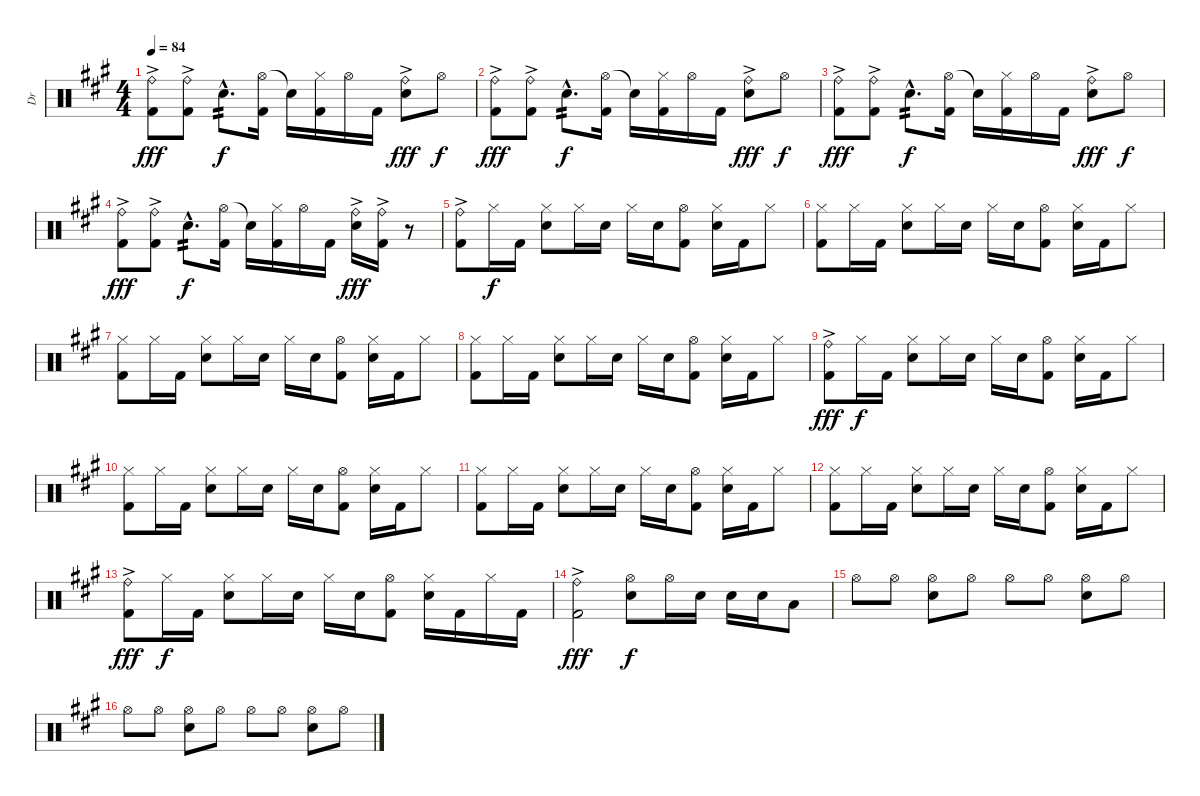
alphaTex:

\track ("Dr" "Dr") {instrument percussion}
\staff {score}
\articulation defaults
\ts (4 4)
\tempo 84
\clef neutral
\ks a
("Ride (bell)"{ac} "Kick (hit) 2"{ac}).8{dy fff} ("Ride (bell)"{ac} "Kick (hit) 2"{ac}).8 "Electric Snare (hit)"{hac}.8{d tp 2 dy f} ("Hi-Hat (open)" "Kick (hit) 2").16 "Snare (hit)"{t}.16 ("Hi-Hat (closed)" "Kick (hit) 2").16 "Hi-Hat (open)".16 "Kick (hit) 2".16 ("Ride (bell)"{ac} "Electric Snare (hit)"{ac}).8{dy fff} "Hi-Hat (open)".8{dy f} |
("Ride (bell)"{ac} "Kick (hit) 2"{ac}).8{dy fff} ("Ride (bell)"{ac} "Kick (hit) 2"{ac}).8 "Electric Snare (hit)"{hac}.8{d tp 2 dy f} ("Hi-Hat (open)" "Kick (hit) 2").16 "Snare (hit)"{t}.16 ("Hi-Hat (closed)" "Kick (hit) 2").16 "Hi-Hat (open)".16 "Kick (hit) 2".16 ("Ride (bell)"{ac} "Electric Snare (hit)"{ac}).8{dy fff} "Hi-Hat (open)".8{dy f} |
("Ride (bell)"{ac} "Kick (hit) 2"{ac}).8{dy fff} ("Ride (bell)"{ac} "Kick (hit) 2"{ac}).8 "Electric Snare (hit)"{hac}.8{d tp 2 dy f} ("Hi-Hat (open)" "Kick (hit) 2").16 "Snare (hit)"{t}.16 ("Hi-Hat (closed)" "Kick (hit) 2").16 "Hi-Hat (open)".16 "Kick (hit) 2".16 ("Ride (bell)"{ac} "Electric Snare (hit)"{ac}).8{dy fff} "Hi-Hat (open)".8{dy f} |
("Ride (bell)"{ac} "Kick (hit) 2"{ac}).8{dy fff} ("Ride (bell)"{ac} "Kick (hit) 2"{ac}).8 "Electric Snare (hit)"{hac}.8{d tp 2 dy f} ("Hi-Hat (open)" "Kick (hit) 2").16 "Snare (hit)"{t}.16 ("Hi-Hat (closed)" "Kick (hit) 2").16 "Hi-Hat (open)".16 "Kick (hit) 2".16 ("Ride (bell)"{ac} "Electric Snare (hit)"{ac}).16{dy fff} ("Ride (bell)"{ac} "Kick (hit) 2"{ac}).16 r.8 |
("Ride (bell)"{ac} "Kick (hit) 2"{ac}).8 "Hi-Hat (closed)".16{dy f} "Kick (hit) 2".16 ("Hi-Hat (closed)" "Electric Snare (hit)").8 "Hi-Hat (closed)".16 "Electric Snare (hit)".16 "Hi-Hat (closed)".16 "Electric Snare (hit)".16 ("Hi-Hat (open)" "Kick (hit) 2").8 ("Hi-Hat (closed)" "Electric Snare (hit)").16 "Kick (hit) 2".16 "Hi-Hat (closed)".8 |
("Hi-Hat (closed)" "Kick (hit) 2").8 "Hi-Hat (closed)".16 "Kick (hit) 2".16 ("Hi-Hat (closed)" "Electric Snare (hit)").8 "Hi-Hat (closed)".16 "Electric Snare (hit)".16 "Hi-Hat (closed)".16 "Electric Snare (hit)".16 ("Hi-Hat (open)" "Kick (hit) 2").8 ("Hi-Hat (closed)" "Electric Snare (hit)").16 "Kick (hit) 2".16 "Hi-Hat (closed)".8 |
("Hi-Hat (closed)" "Kick (hit) 2").8 "Hi-Hat (closed)".16 "Kick (hit) 2".16 ("Hi-Hat (closed)" "Electric Snare (hit)").8 "Hi-Hat (closed)".16 "Electric Snare (hit)".16 "Hi-Hat (closed)".16 "Electric Snare (hit)".16 ("Hi-Hat (open)" "Kick (hit) 2").8 ("Hi-Hat (closed)" "Electric Snare (hit)").16 "Kick (hit) 2".16 "Hi-Hat (closed)".8 |
("Hi-Hat (closed)" "Kick (hit) 2").8 "Hi-Hat (closed)".16 "Kick (hit) 2".16 ("Hi-Hat (closed)" "Electric Snare (hit)").8 "Hi-Hat (closed)".16 "Electric Snare (hit)".16 "Hi-Hat (closed)".16 "Electric Snare (hit)".16 ("Hi-Hat (open)" "Kick (hit) 2").8 ("Hi-Hat (closed)" "Electric Snare (hit)").16 "Kick (hit) 2".16 "Hi-Hat (closed)".8 |
("Ride (bell)"{ac} "Kick (hit) 2"{ac}).8{dy fff} "Hi-Hat (closed)".16{dy f} "Kick (hit) 2".16 ("Hi-Hat (closed)" "Electric Snare (hit)").8 "Hi-Hat (closed)".16 "Electric Snare (hit)".16 "Hi-Hat (closed)".16 "Electric Snare (hit)".16 ("Hi-Hat (open)" "Kick (hit) 2").8 ("Hi-Hat (closed)" "Electric Snare (hit)").16 "Kick (hit) 2".16 "Hi-Hat (closed)".8 |
("Hi-Hat (closed)" "Kick (hit) 2").8 "Hi-Hat (closed)".16 "Kick (hit) 2".16 ("Hi-Hat (closed)" "Electric Snare (hit)").8 "Hi-Hat (closed)".16 "Electric Snare (hit)".16 "Hi-Hat (closed)".16 "Electric Snare (hit)".16 ("Hi-Hat (open)" "Kick (hit) 2").8 ("Hi-Hat (closed)" "Electric Snare (hit)").16 "Kick (hit) 2".16 "Hi-Hat (closed)".8 |
("Hi-Hat (closed)" "Kick (hit) 2").8 "Hi-Hat (closed)".16 "Kick (hit) 2".16 ("Hi-Hat (closed)" "Electric Snare (hit)").8 "Hi-Hat (closed)".16 "Electric Snare (hit)".16 "Hi-Hat (closed)".16 "Electric Snare (hit)".16 ("Hi-Hat (open)" "Kick (hit) 2").8 ("Hi-Hat (closed)" "Electric Snare (hit)").16 "Kick (hit) 2".16 "Hi-Hat (closed)".8 |
("Hi-Hat (closed)" "Kick (hit) 2").8 "Hi-Hat (closed)".16 "Kick (hit) 2".16 ("Hi-Hat (closed)" "Electric Snare (hit)").8 "Hi-Hat (closed)".16 "Electric Snare (hit)".16 "Hi-Hat (closed)".16 "Electric Snare (hit)".16 ("Hi-Hat (open)" "Kick (hit) 2").8 ("Hi-Hat (closed)" "Electric Snare (hit)").16 "Kick (hit) 2".16 "Hi-Hat (closed)".8 |
("Ride (bell)"{ac} "Kick (hit) 2"{ac}).8{dy fff} "Hi-Hat (closed)".16{dy f} "Kick (hit) 2".16 ("Hi-Hat (closed)" "Electric Snare (hit)").8 "Hi-Hat (closed)".16 "Electric Snare (hit)".16 "Hi-Hat (closed)".16 "Electric Snare (hit)".16 ("Hi-Hat (open)" "Kick (hit) 2").8 ("Hi-Hat (closed)" "Electric Snare (hit)").16 "Kick (hit) 2".16 "Hi-Hat (closed)".16 "Kick (hit) 2".16 |
("Ride (bell)"{ac} "Kick (hit) 2"{ac}).2{dy fff} ("Hi-Hat (open)" "Electric Snare (hit)").8{dy f} "Hi-Hat (open)".16 "Electric Snare (hit)".16 "Electric Snare (hit)".16 "Electric Snare (hit)".16 "Low Tom (hit)".8 |
"Hi-Hat (open)".8 "Hi-Hat (open)".8 ("Hi-Hat (open)" "Electric Snare (hit)").8 "Hi-Hat (open)".8 "Hi-Hat (open)".8 "Hi-Hat (open)".8 ("Hi-Hat (open)" "Electric Snare (hit)").8 "Hi-Hat (open)".8 |
"Hi-Hat (open)".8 "Hi-Hat (open)".8 ("Hi-Hat (open)" "Electric Snare (hit)").8 "Hi-Hat (open)".8 "Hi-Hat (open)".8 "Hi-Hat (open)".8 ("Hi-Hat (open)" "Electric Snare (hit)").8 "Hi-Hat (open)".8
